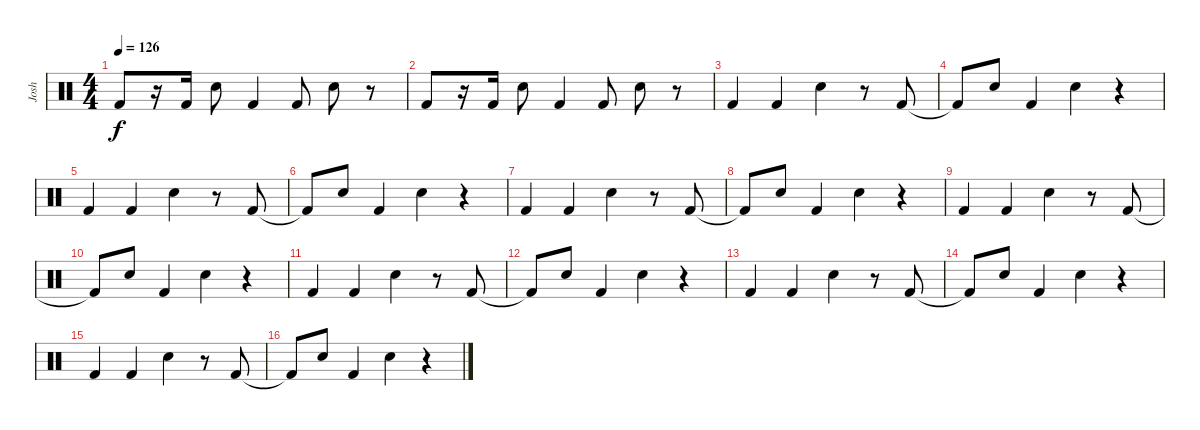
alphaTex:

\track ("Josh" "Josh") {instrument percussion}
\staff {score}
\articulation defaults
\ts (4 4)
\tempo 126
\clef neutral
\ks c "Kick (hit) 2".8{dy f}
r.16 "Kick (hit) 2".16 "Snare (hit) 2".8 "Kick (hit) 2".4 "Kick (hit) 2".8 "Snare (hit) 2".8 r.8 |
"Kick (hit) 2".8 r.16 "Kick (hit) 2".16 "Snare (hit) 2".8 "Kick (hit) 2".4 "Kick (hit) 2".8 "Snare (hit) 2".8 r.8 |
"Kick (hit) 2".4 "Kick (hit) 2".4 "Snare (hit) 2".4 r.8 "Kick (hit) 2".8 |
"Kick (hit) 2"{t}.8 "Snare (hit) 2".8 "Kick (hit) 2".4 "Snare (hit) 2".4 r.4 |
"Kick (hit) 2".4 "Kick (hit) 2".4 "Snare (hit) 2".4 r.8 "Kick (hit) 2".8 |
"Kick (hit) 2"{t}.8 "Snare (hit) 2".8 "Kick (hit) 2".4 "Snare (hit) 2".4 r.4 |
"Kick (hit) 2".4 "Kick (hit) 2".4 "Snare (hit) 2".4 r.8 "Kick (hit) 2".8 |
"Kick (hit) 2"{t}.8 "Snare (hit) 2".8 "Kick (hit) 2".4 "Snare (hit) 2".4 r.4 |
"Kick (hit) 2".4 "Kick (hit) 2".4 "Snare (hit) 2".4 r.8 "Kick (hit) 2".8 |
"Kick (hit) 2"{t}.8 "Snare (hit) 2".8 "Kick (hit) 2".4 "Snare (hit) 2".4 r.4 |
"Kick (hit) 2".4 "Kick (hit) 2".4 "Snare (hit) 2".4 r.8 "Kick (hit) 2".8 |
"Kick (hit) 2"{t}.8 "Snare (hit) 2".8 "Kick (hit) 2".4 "Snare (hit) 2".4 r.4 |
"Kick (hit) 2".4 "Kick (hit) 2".4 "Snare (hit) 2".4 r.8 "Kick (hit) 2".8 |
"Kick (hit) 2"{t}.8 "Snare (hit) 2".8 "Kick (hit) 2".4 "Snare (hit) 2".4 r.4 |
"Kick (hit) 2".4 "Kick (hit) 2".4 "Snare (hit) 2".4 r.8 "Kick (hit) 2".8 |
"Kick (hit) 2"{t}.8 "Snare (hit) 2".8 "Kick (hit) 2".4 "Snare (hit) 2".4 r.4
